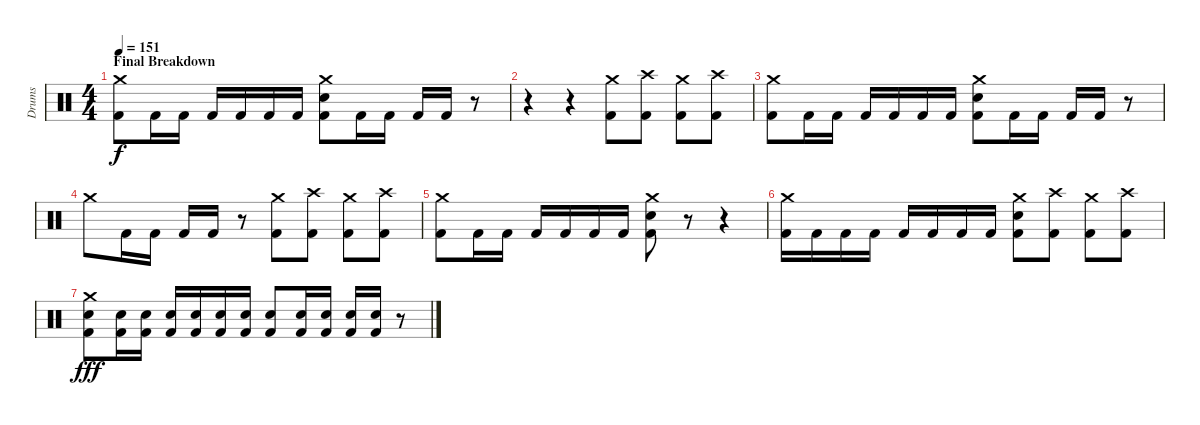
\track ("Drums" "Drums") {instrument percussion}
\staff {score}
\articulation defaults
\ts (4 4)
\section ("" "Final Breakdown")
\tempo 151
\clef neutral
\ks c
("Crash medium (hit)" "Kick (hit) 2").8{dy f} "Kick (hit) 2".16 "Kick (hit) 2".16 "Kick (hit) 2".16 "Kick (hit) 2".16 "Kick (hit) 2".16 "Kick (hit) 2".16 ("Crash medium (hit)" "Snare (hit) 2" "Kick (hit) 2").8 "Kick (hit) 2".16 "Kick (hit) 2".16 "Kick (hit) 2".16 "Kick (hit) 2".16 r.8 |
r.4 r.4 ("Crash medium (hit)" "Kick (hit) 2").8 ("Crash high (hit)" "Kick (hit) 2").8 ("Crash medium (hit)" "Kick (hit) 2").8 ("Crash high (hit)" "Kick (hit) 2").8 |
("Crash medium (hit)" "Kick (hit) 2").8 "Kick (hit) 2".16 "Kick (hit) 2".16 "Kick (hit) 2".16 "Kick (hit) 2".16 "Kick (hit) 2".16 "Kick (hit) 2".16 ("Crash medium (hit)" "Snare (hit) 2" "Kick (hit) 2").8 "Kick (hit) 2".16 "Kick (hit) 2".16 "Kick (hit) 2".16 "Kick (hit) 2".16 r.8 |
"Crash medium (hit)".8 "Kick (hit) 2".16 "Kick (hit) 2".16 "Kick (hit) 2".16 "Kick (hit) 2".16 r.8 ("Crash medium (hit)" "Kick (hit) 2").8 ("Crash high (hit)" "Kick (hit) 2").8 ("Crash medium (hit)" "Kick (hit) 2").8 ("Crash high (hit)" "Kick (hit) 2").8 |
("Crash medium (hit)" "Kick (hit) 2").8 "Kick (hit) 2".16 "Kick (hit) 2".16 "Kick (hit) 2".16 "Kick (hit) 2".16 "Kick (hit) 2".16 "Kick (hit) 2".16 ("Crash medium (hit)" "Snare (hit) 2" "Kick (hit) 2").8 r.8 r.4 |
("Crash medium (hit)" "Kick (hit) 2").16 "Kick (hit) 2".16 "Kick (hit) 2".16 "Kick (hit) 2".16 "Kick (hit) 2".16 "Kick (hit) 2".16 "Kick (hit) 2".16 "Kick (hit) 2".16 ("Crash medium (hit)" "Snare (hit) 2" "Kick (hit) 2").8 ("Crash high (hit)" "Kick (hit) 2").8 ("Crash medium (hit)" "Kick (hit) 2").8 ("Crash high (hit)" "Kick (hit) 2").8 |
("Crash medium (hit)" "Snare (hit) 2" "Kick (hit) 2").8{dy fff} ("Snare (hit) 2" "Kick (hit) 2").16 ("Snare (hit) 2" "Kick (hit) 2").16 ("Snare (hit) 2" "Kick (hit) 2").16 ("Snare (hit) 2" "Kick (hit) 2").16 ("Snare (hit) 2" "Kick (hit) 2").16 ("Snare (hit) 2" "Kick (hit) 2").16 ("Snare (hit) 2" "Kick (hit) 2").8 ("Snare (hit) 2" "Kick (hit) 2").16 ("Snare (hit) 2" "Kick (hit) 2").16 ("Snare (hit) 2" "Kick (hit) 2").16 ("Snare (hit) 2" "Kick (hit) 2").16 r.8
